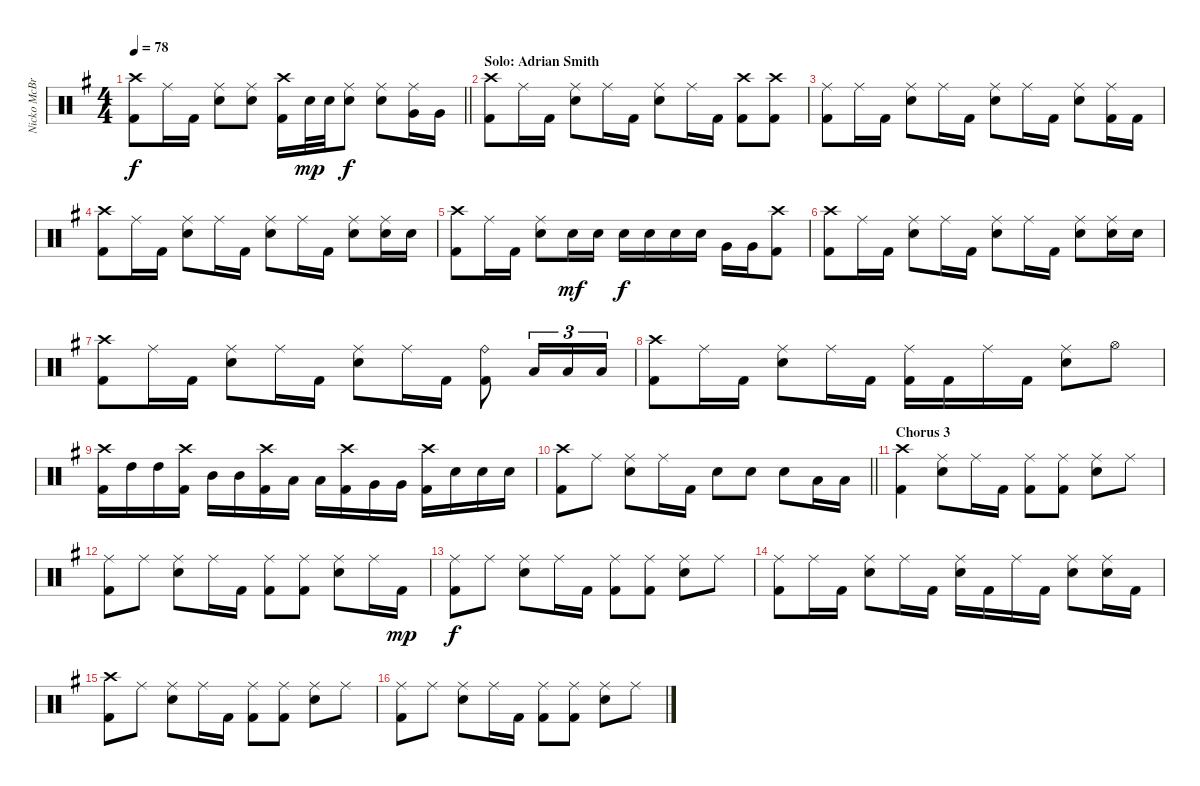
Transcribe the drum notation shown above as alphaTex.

\track ("Nicko McBrain" "Nicko McBr") {instrument percussion}
\staff {score}
\articulation defaults
\ts (4 4)
\tempo 78
\clef neutral
\barLineRight lightlight
\ks g
("Crash high (hit)" "Kick (hit) 2").8{dy f} "Ride (middle)".16 "Kick (hit) 2".16 ("Ride (middle)" "Electric Snare (hit)").8 ("Ride (middle)" "Electric Snare (hit)").8 ("Crash high (hit)" "Kick (hit) 2").16 "Electric Snare (hit)".32{dy mp} "Electric Snare (hit)".32 ("Ride (middle)" "Electric Snare (hit)").8{dy f} ("Ride (middle)" "Electric Snare (hit)").8 ("Ride (middle)" "Very Low Tom (hit)").16 "Very Low Tom (hit)".16 |
\section ("" "Solo: Adrian Smith")
("Crash high (hit)" "Kick (hit) 2").8 "Ride (middle)".16 "Kick (hit) 2".16 ("Ride (middle)" "Electric Snare (hit)").8 "Ride (middle)".16 "Kick (hit) 2".16 ("Ride (middle)" "Electric Snare (hit)").8 "Ride (middle)".16 "Kick (hit) 2".16 ("Crash high (hit)" "Kick (hit) 2").8 ("Crash high (hit)" "Kick (hit) 2").8 |
("Ride (middle)" "Kick (hit) 2").8 "Ride (middle)".16 "Kick (hit) 2".16 ("Ride (middle)" "Electric Snare (hit)").8 "Ride (middle)".16 "Kick (hit) 2".16 ("Ride (middle)" "Electric Snare (hit)").8 "Ride (middle)".16 "Kick (hit) 2".16 ("Ride (middle)" "Electric Snare (hit)").8 ("Ride (middle)" "Kick (hit) 2").16 "Kick (hit) 2".16 |
("Crash high (hit)" "Kick (hit) 2").8 "Ride (middle)".16 "Kick (hit) 2".16 ("Ride (middle)" "Electric Snare (hit)").8 "Ride (middle)".16 "Kick (hit) 2".16 ("Ride (middle)" "Electric Snare (hit)").8 "Ride (middle)".16 "Kick (hit) 2".16 ("Ride (middle)" "Electric Snare (hit)").8 ("Ride (middle)" "Electric Snare (hit)").16 "Electric Snare (hit)".16 |
("Crash high (hit)" "Kick (hit) 2").8 "Ride (middle)".16 "Kick (hit) 2".16 ("Ride (middle)" "Electric Snare (hit)").8 "Electric Snare (hit)".16{dy mf} "Electric Snare (hit)".16 "Electric Snare (hit)".16{dy f} "Electric Snare (hit)".16 "Electric Snare (hit)".16 "Electric Snare (hit)".16 "Very Low Tom (hit)".16 "Very Low Tom (hit)".16 ("Crash high (hit)" "Kick (hit) 2").8 |
("Crash high (hit)" "Kick (hit) 2").8 "Ride (middle)".16 "Kick (hit) 2".16 ("Ride (middle)" "Electric Snare (hit)").8 "Ride (middle)".16 "Kick (hit) 2".16 ("Ride (middle)" "Electric Snare (hit)").8 "Ride (middle)".16 "Kick (hit) 2".16 ("Ride (middle)" "Electric Snare (hit)").8 ("Ride (middle)" "Electric Snare (hit)").16 "Electric Snare (hit)".16 |
("Crash high (hit)" "Kick (hit) 2").8 "Ride (middle)".16 "Kick (hit) 2".16 ("Ride (middle)" "Electric Snare (hit)").8 "Ride (middle)".16 "Kick (hit) 2".16 ("Ride (middle)" "Electric Snare (hit)").8 "Ride (middle)".16 "Kick (hit) 2".16 ("Ride (bell)" "Kick (hit) 2").8 "Low Tom (hit)".16{tu (3 2)} "Low Tom (hit)".16{tu (3 2)} "Low Tom (hit)".16{tu (3 2)} |
("Crash high (hit)" "Kick (hit) 2").8 "Ride (middle)".16 "Kick (hit) 2".16 ("Ride (middle)" "Electric Snare (hit)").8 "Ride (middle)".16 "Kick (hit) 2".16 ("Ride (middle)" "Kick (hit) 2").16 "Kick (hit) 2".16 "Ride (middle)".16 "Kick (hit) 2".16 ("Ride (middle)" "Electric Snare (hit)").8 "Hi-Hat (open)".8 |
("Crash high (hit)" "Kick (hit) 2").16 "High Tom (hit)".16 "High Tom (hit)".16 ("Crash high (hit)" "Kick (hit) 2").16 "Mid Tom (hit)".16 "Mid Tom (hit)".16 ("Crash high (hit)" "Kick (hit) 2").16 "Low Tom (hit)".16 "Low Tom (hit)".16 ("Crash high (hit)" "Kick (hit) 2").16 "Very Low Tom (hit)".16 "Very Low Tom (hit)".16 ("Crash high (hit)" "Kick (hit) 2").16 "Electric Snare (hit)".16 "Electric Snare (hit)".16 "Electric Snare (hit)".16 |
\barLineRight lightlight
("Crash high (hit)" "Kick (hit) 2").8 "Ride (middle)".8 ("Ride (middle)" "Electric Snare (hit)").8 "Ride (middle)".16 "Kick (hit) 2".16 "Electric Snare (hit)".8 "Electric Snare (hit)".8 "Electric Snare (hit)".8 "Low Tom (hit)".16 "Low Tom (hit)".16 |
\section ("" "Chorus 3")
("Crash high (hit)" "Kick (hit) 2").4 ("Ride (middle)" "Electric Snare (hit)").8 "Ride (middle)".16 "Kick (hit) 2".16 ("Ride (middle)" "Kick (hit) 2").8 ("Ride (middle)" "Kick (hit) 2").8 ("Ride (middle)" "Electric Snare (hit)").8 "Ride (middle)".8 |
("Ride (middle)" "Kick (hit) 2").8 "Ride (middle)".8 ("Ride (middle)" "Electric Snare (hit)").8 "Ride (middle)".16 "Kick (hit) 2".16 ("Ride (middle)" "Kick (hit) 2").8 ("Ride (middle)" "Kick (hit) 2").8 ("Ride (middle)" "Electric Snare (hit)").8 "Ride (middle)".16 "Kick (hit) 2".16{dy mp} |
("Ride (middle)" "Kick (hit) 2").8{dy f} "Ride (middle)".8 ("Ride (middle)" "Electric Snare (hit)").8 "Ride (middle)".16 "Kick (hit) 2".16 ("Ride (middle)" "Kick (hit) 2").8 ("Ride (middle)" "Kick (hit) 2").8 ("Ride (middle)" "Electric Snare (hit)").8 "Ride (middle)".8 |
("Ride (middle)" "Kick (hit) 2").8 "Ride (middle)".16 "Kick (hit) 2".16 ("Ride (middle)" "Electric Snare (hit)").8 "Ride (middle)".16 "Kick (hit) 2".16 ("Ride (middle)" "Electric Snare (hit)").16 "Kick (hit) 2".16 "Ride (middle)".16 "Kick (hit) 2".16 ("Ride (middle)" "Electric Snare (hit)").8 ("Ride (middle)" "Electric Snare (hit)").16 "Kick (hit) 2".16 |
("Crash high (hit)" "Kick (hit) 2").8 "Ride (middle)".8 ("Ride (middle)" "Electric Snare (hit)").8 "Ride (middle)".16 "Kick (hit) 2".16 ("Ride (middle)" "Kick (hit) 2").8 ("Ride (middle)" "Kick (hit) 2").8 ("Ride (middle)" "Electric Snare (hit)").8 "Ride (middle)".8 |
("Ride (middle)" "Kick (hit) 2").8 "Ride (middle)".8 ("Ride (middle)" "Electric Snare (hit)").8 "Ride (middle)".16 "Kick (hit) 2".16 ("Ride (middle)" "Kick (hit) 2").8 ("Ride (middle)" "Kick (hit) 2").8 ("Ride (middle)" "Electric Snare (hit)").8 "Ride (middle)".8
